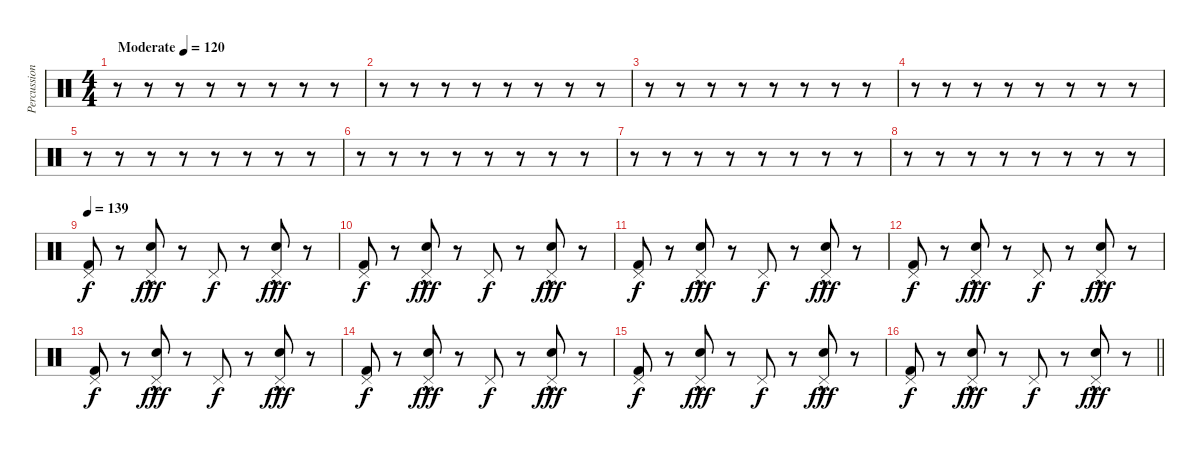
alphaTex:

\track ("Percussion" "Percussion") {instrument percussion}
\staff {score}
\articulation defaults
\ts (4 4)
\tempo (120 "Moderate")
\clef neutral
\ks c
r.8{dy f} r.8 r.8 r.8 r.8 r.8 r.8 r.8 |
r.8 r.8 r.8 r.8 r.8 r.8 r.8 r.8 |
r.8 r.8 r.8 r.8 r.8 r.8 r.8 r.8 |
r.8 r.8 r.8 r.8 r.8 r.8 r.8 r.8 |
r.8 r.8 r.8 r.8 r.8 r.8 r.8 r.8 |
r.8 r.8 r.8 r.8 r.8 r.8 r.8 r.8 |
r.8 r.8 r.8 r.8 r.8 r.8 r.8 r.8 |
r.8 r.8 r.8 r.8 r.8 r.8 r.8 r.8 |
\tempo 139
("Kick (hit) 2" "Pedal Hi-Hat (hit)").8 r.8 ("Electric Snare (hit)"{hac} "Pedal Hi-Hat (hit)").8{dy fff} r.8 "Pedal Hi-Hat (hit)".8{dy f} r.8 ("Electric Snare (hit)"{hac} "Pedal Hi-Hat (hit)").8{dy fff} r.8 |
("Kick (hit) 2" "Pedal Hi-Hat (hit)").8{dy f} r.8 ("Electric Snare (hit)"{hac} "Pedal Hi-Hat (hit)").8{dy fff} r.8 "Pedal Hi-Hat (hit)".8{dy f} r.8 ("Electric Snare (hit)"{hac} "Pedal Hi-Hat (hit)").8{dy fff} r.8 |
("Kick (hit) 2" "Pedal Hi-Hat (hit)").8{dy f} r.8 ("Electric Snare (hit)"{hac} "Pedal Hi-Hat (hit)").8{dy fff} r.8 "Pedal Hi-Hat (hit)".8{dy f} r.8 ("Electric Snare (hit)"{hac} "Pedal Hi-Hat (hit)").8{dy fff} r.8 |
("Kick (hit) 2" "Pedal Hi-Hat (hit)").8{dy f} r.8 ("Electric Snare (hit)"{hac} "Pedal Hi-Hat (hit)").8{dy fff} r.8 "Pedal Hi-Hat (hit)".8{dy f} r.8 ("Electric Snare (hit)"{hac} "Pedal Hi-Hat (hit)").8{dy fff} r.8 |
("Kick (hit) 2" "Pedal Hi-Hat (hit)").8{dy f} r.8 ("Electric Snare (hit)"{hac} "Pedal Hi-Hat (hit)").8{dy fff} r.8 "Pedal Hi-Hat (hit)".8{dy f} r.8 ("Electric Snare (hit)"{hac} "Pedal Hi-Hat (hit)").8{dy fff} r.8 |
("Kick (hit) 2" "Pedal Hi-Hat (hit)").8{dy f} r.8 ("Electric Snare (hit)"{hac} "Pedal Hi-Hat (hit)").8{dy fff} r.8 "Pedal Hi-Hat (hit)".8{dy f} r.8 ("Electric Snare (hit)"{hac} "Pedal Hi-Hat (hit)").8{dy fff} r.8 |
("Kick (hit) 2" "Pedal Hi-Hat (hit)").8{dy f} r.8 ("Electric Snare (hit)"{hac} "Pedal Hi-Hat (hit)").8{dy fff} r.8 "Pedal Hi-Hat (hit)".8{dy f} r.8 ("Electric Snare (hit)"{hac} "Pedal Hi-Hat (hit)").8{dy fff} r.8 |
\barLineRight lightlight
("Kick (hit) 2" "Pedal Hi-Hat (hit)").8{dy f} r.8 ("Electric Snare (hit)"{hac} "Pedal Hi-Hat (hit)").8{dy fff} r.8 "Pedal Hi-Hat (hit)".8{dy f} r.8 ("Electric Snare (hit)"{hac} "Pedal Hi-Hat (hit)").8{dy fff} r.8
